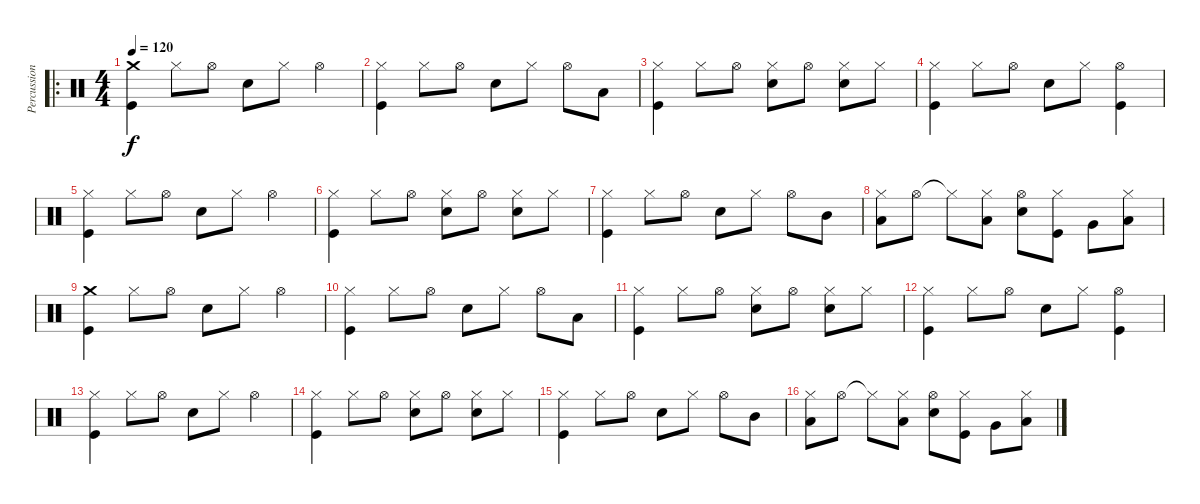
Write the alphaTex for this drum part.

\track ("Percussions" "Percussion") {instrument percussion}
\staff {score}
\articulation defaults
\ro
\ts (4 4)
\tempo 120
\clef neutral
\ks c
("Crash medium (hit)" "Kick (hit)").4{dy f} "Hi-Hat (closed)".8 "Hi-Hat (open)".8 "Electric Snare (hit)".8 "Hi-Hat (closed)".8 "Hi-Hat (open)".4 |
("Hi-Hat (closed)" "Kick (hit)").4 "Hi-Hat (closed)".8 "Hi-Hat (open)".8 "Electric Snare (hit)".8 "Hi-Hat (closed)".8 "Hi-Hat (open)".8 "Low Floor Tom (hit)".8 |
("Hi-Hat (closed)" "Kick (hit)").4 "Hi-Hat (closed)".8 "Hi-Hat (open)".8 ("Hi-Hat (closed)" "Electric Snare (hit)").8 "Hi-Hat (open)".8 ("Hi-Hat (closed)" "Electric Snare (hit)").8 "Hi-Hat (closed)".8 |
("Hi-Hat (closed)" "Kick (hit)").4 "Hi-Hat (closed)".8 "Hi-Hat (open)".8 "Electric Snare (hit)".8 "Hi-Hat (closed)".8 ("Hi-Hat (open)" "Kick (hit)").4 |
("Hi-Hat (closed)" "Kick (hit)").4 "Hi-Hat (closed)".8 "Hi-Hat (open)".8 "Electric Snare (hit)".8 "Hi-Hat (closed)".8 "Hi-Hat (open)".4 |
("Hi-Hat (closed)" "Kick (hit)").4 "Hi-Hat (closed)".8 "Hi-Hat (open)".8 ("Hi-Hat (closed)" "Electric Snare (hit)").8 "Hi-Hat (open)".8 ("Hi-Hat (closed)" "Electric Snare (hit)").8 "Hi-Hat (closed)".8 |
("Hi-Hat (closed)" "Kick (hit)").4 "Hi-Hat (closed)".8 "Hi-Hat (open)".8 "Electric Snare (hit)".8 "Hi-Hat (closed)".8 "Hi-Hat (open)".8 "Mid Tom (hit)".8 |
("Hi-Hat (closed)" "Low Tom (hit)").8 "Hi-Hat (open)".8 "Hi-Hat (closed)"{t}.8 ("Hi-Hat (closed)" "Low Tom (hit)").8 ("Hi-Hat (open)" "Electric Snare (hit)").8 ("Hi-Hat (closed)" "Kick (hit)").8 "Very Low Tom (hit)".8 ("Hi-Hat (closed)" "Low Floor Tom (hit)").8 |
("Crash medium (hit)" "Kick (hit)").4 "Hi-Hat (closed)".8 "Hi-Hat (open)".8 "Electric Snare (hit)".8 "Hi-Hat (closed)".8 "Hi-Hat (open)".4 |
("Hi-Hat (closed)" "Kick (hit)").4 "Hi-Hat (closed)".8 "Hi-Hat (open)".8 "Electric Snare (hit)".8 "Hi-Hat (closed)".8 "Hi-Hat (open)".8 "Low Floor Tom (hit)".8 |
("Hi-Hat (closed)" "Kick (hit)").4 "Hi-Hat (closed)".8 "Hi-Hat (open)".8 ("Hi-Hat (closed)" "Electric Snare (hit)").8 "Hi-Hat (open)".8 ("Hi-Hat (closed)" "Electric Snare (hit)").8 "Hi-Hat (closed)".8 |
("Hi-Hat (closed)" "Kick (hit)").4 "Hi-Hat (closed)".8 "Hi-Hat (open)".8 "Electric Snare (hit)".8 "Hi-Hat (closed)".8 ("Hi-Hat (open)" "Kick (hit)").4 |
("Hi-Hat (closed)" "Kick (hit)").4 "Hi-Hat (closed)".8 "Hi-Hat (open)".8 "Electric Snare (hit)".8 "Hi-Hat (closed)".8 "Hi-Hat (open)".4 |
("Hi-Hat (closed)" "Kick (hit)").4 "Hi-Hat (closed)".8 "Hi-Hat (open)".8 ("Hi-Hat (closed)" "Electric Snare (hit)").8 "Hi-Hat (open)".8 ("Hi-Hat (closed)" "Electric Snare (hit)").8 "Hi-Hat (closed)".8 |
("Hi-Hat (closed)" "Kick (hit)").4 "Hi-Hat (closed)".8 "Hi-Hat (open)".8 "Electric Snare (hit)".8 "Hi-Hat (closed)".8 "Hi-Hat (open)".8 "Mid Tom (hit)".8 |
("Hi-Hat (closed)" "Low Tom (hit)").8 "Hi-Hat (open)".8 "Hi-Hat (closed)"{t}.8 ("Hi-Hat (closed)" "Low Tom (hit)").8 ("Hi-Hat (open)" "Electric Snare (hit)").8 ("Hi-Hat (closed)" "Kick (hit)").8 "Very Low Tom (hit)".8 ("Hi-Hat (closed)" "Low Floor Tom (hit)").8
